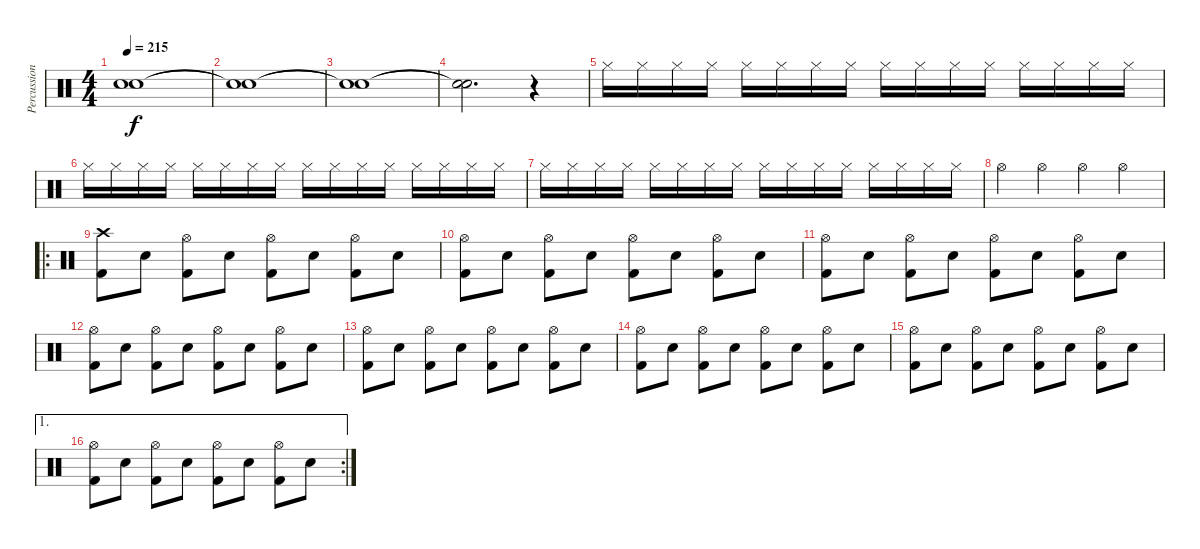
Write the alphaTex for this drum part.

\track ("Percussion" "Percussion") {instrument percussion}
\staff {score}
\articulation defaults
\ts (4 4)
\tempo 215
\clef neutral
\ks aminor
("Snare (hit)"{t} "Snare (hit)"{t}).1{dy f} |
("Snare (hit)"{t} "Snare (hit)"{t}).1 |
("Snare (hit)"{t} "Snare (hit)"{t}).1 |
("Snare (hit)"{t} "Snare (hit)"{t}).2{d} r.4 |
"Hi-Hat (closed)".16 "Hi-Hat (closed)".16 "Hi-Hat (closed)".16 "Hi-Hat (closed)".16 "Hi-Hat (closed)".16 "Hi-Hat (closed)".16 "Hi-Hat (closed)".16 "Hi-Hat (closed)".16 "Hi-Hat (closed)".16 "Hi-Hat (closed)".16 "Hi-Hat (closed)".16 "Hi-Hat (closed)".16 "Hi-Hat (closed)".16 "Hi-Hat (closed)".16 "Hi-Hat (closed)".16 "Hi-Hat (closed)".16 |
"Hi-Hat (closed)".16 "Hi-Hat (closed)".16 "Hi-Hat (closed)".16 "Hi-Hat (closed)".16 "Hi-Hat (closed)".16 "Hi-Hat (closed)".16 "Hi-Hat (closed)".16 "Hi-Hat (closed)".16 "Hi-Hat (closed)".16 "Hi-Hat (closed)".16 "Hi-Hat (closed)".16 "Hi-Hat (closed)".16 "Hi-Hat (closed)".16 "Hi-Hat (closed)".16 "Hi-Hat (closed)".16 "Hi-Hat (closed)".16 |
"Hi-Hat (closed)".16 "Hi-Hat (closed)".16 "Hi-Hat (closed)".16 "Hi-Hat (closed)".16 "Hi-Hat (closed)".16 "Hi-Hat (closed)".16 "Hi-Hat (closed)".16 "Hi-Hat (closed)".16 "Hi-Hat (closed)".16 "Hi-Hat (closed)".16 "Hi-Hat (closed)".16 "Hi-Hat (closed)".16 "Hi-Hat (closed)".16 "Hi-Hat (closed)".16 "Hi-Hat (closed)".16 "Hi-Hat (closed)".16 |
"Hi-Hat (open)".4 "Hi-Hat (open)".4 "Hi-Hat (open)".4 "Hi-Hat (open)".4 |
\ro
("Crash high (hit)" "Kick (hit) 2").8 "Snare (hit) 2".8 ("Hi-Hat (open)" "Kick (hit) 2").8 "Snare (hit) 2".8 ("Hi-Hat (open)" "Kick (hit) 2").8 "Snare (hit) 2".8 ("Hi-Hat (open)" "Kick (hit) 2").8 "Snare (hit) 2".8 |
("Hi-Hat (open)" "Kick (hit) 2").8 "Snare (hit) 2".8 ("Hi-Hat (open)" "Kick (hit) 2").8 "Snare (hit) 2".8 ("Hi-Hat (open)" "Kick (hit) 2").8 "Snare (hit) 2".8 ("Hi-Hat (open)" "Kick (hit) 2").8 "Snare (hit) 2".8 |
("Hi-Hat (open)" "Kick (hit) 2").8 "Snare (hit) 2".8 ("Hi-Hat (open)" "Kick (hit) 2").8 "Snare (hit) 2".8 ("Hi-Hat (open)" "Kick (hit) 2").8 "Snare (hit) 2".8 ("Hi-Hat (open)" "Kick (hit) 2").8 "Snare (hit) 2".8 |
("Hi-Hat (open)" "Kick (hit) 2").8 "Snare (hit) 2".8 ("Hi-Hat (open)" "Kick (hit) 2").8 "Snare (hit) 2".8 ("Hi-Hat (open)" "Kick (hit) 2").8 "Snare (hit) 2".8 ("Hi-Hat (open)" "Kick (hit) 2").8 "Snare (hit) 2".8 |
("Hi-Hat (open)" "Kick (hit) 2").8 "Snare (hit) 2".8 ("Hi-Hat (open)" "Kick (hit) 2").8 "Snare (hit) 2".8 ("Hi-Hat (open)" "Kick (hit) 2").8 "Snare (hit) 2".8 ("Hi-Hat (open)" "Kick (hit) 2").8 "Snare (hit) 2".8 |
("Hi-Hat (open)" "Kick (hit) 2").8 "Snare (hit) 2".8 ("Hi-Hat (open)" "Kick (hit) 2").8 "Snare (hit) 2".8 ("Hi-Hat (open)" "Kick (hit) 2").8 "Snare (hit) 2".8 ("Hi-Hat (open)" "Kick (hit) 2").8 "Snare (hit) 2".8 |
("Hi-Hat (open)" "Kick (hit) 2").8 "Snare (hit) 2".8 ("Hi-Hat (open)" "Kick (hit) 2").8 "Snare (hit) 2".8 ("Hi-Hat (open)" "Kick (hit) 2").8 "Snare (hit) 2".8 ("Hi-Hat (open)" "Kick (hit) 2").8 "Snare (hit) 2".8 |
\ae 1
\rc 2
("Hi-Hat (open)" "Kick (hit) 2").8 "Snare (hit) 2".8 ("Hi-Hat (open)" "Kick (hit) 2").8 "Snare (hit) 2".8 ("Hi-Hat (open)" "Kick (hit) 2").8 "Snare (hit) 2".8 ("Hi-Hat (open)" "Kick (hit) 2").8 "Snare (hit) 2".8
